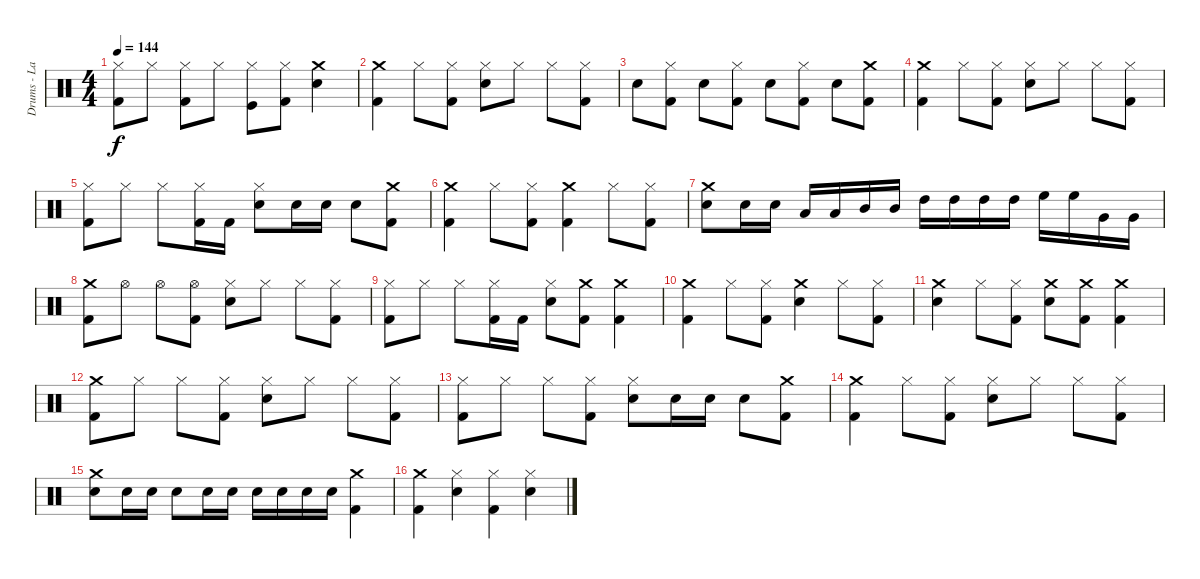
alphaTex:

\track ("Drums - Lars" "Drums - La") {instrument percussion}
\staff {score}
\articulation defaults
\ts (4 4)
\tempo 144
\clef neutral
\ks c
("Hi-Hat (closed)" "Kick (hit) 2").8{dy f} "Hi-Hat (closed)".8 ("Hi-Hat (closed)" "Kick (hit) 2").8 "Hi-Hat (closed)".8 ("Kick (hit)" "Hi-Hat (closed)").8 ("Kick (hit) 2" "Hi-Hat (closed)").8 ("Crash medium (hit)" "Snare (hit) 2").4 |
("Kick (hit) 2" "Crash medium (hit)").4 "Hi-Hat (closed)".8 ("Kick (hit) 2" "Hi-Hat (closed)").8 ("Snare (hit) 2" "Hi-Hat (closed)").8 "Hi-Hat (closed)".8 "Hi-Hat (closed)".8 ("Kick (hit) 2" "Hi-Hat (closed)").8 |
"Snare (hit) 2".8 ("Kick (hit) 2" "Hi-Hat (closed)").8 "Snare (hit) 2".8 ("Kick (hit) 2" "Hi-Hat (closed)").8 "Snare (hit) 2".8 ("Hi-Hat (closed)" "Kick (hit) 2").8 "Snare (hit) 2".8 ("Crash medium (hit)" "Kick (hit) 2").8 |
("Kick (hit) 2" "Crash medium (hit)").4 "Hi-Hat (closed)".8 ("Kick (hit) 2" "Hi-Hat (closed)").8 ("Snare (hit) 2" "Hi-Hat (closed)").8 "Hi-Hat (closed)".8 "Hi-Hat (closed)".8 ("Kick (hit) 2" "Hi-Hat (closed)").8 |
("Kick (hit) 2" "Hi-Hat (closed)").8 "Hi-Hat (closed)".8 "Hi-Hat (closed)".8 ("Kick (hit) 2" "Hi-Hat (closed)").16 "Kick (hit) 2".16 ("Snare (hit) 2" "Hi-Hat (closed)").8 "Snare (hit) 2".16 "Snare (hit) 2".16 "Snare (hit) 2".8 ("Crash medium (hit)" "Kick (hit) 2").8 |
("Kick (hit) 2" "Crash medium (hit)").4 "Hi-Hat (closed)".8 ("Kick (hit) 2" "Hi-Hat (closed)").8 ("Kick (hit) 2" "Crash medium (hit)").4 "Hi-Hat (closed)".8 ("Kick (hit) 2" "Hi-Hat (closed)").8 |
("Snare (hit) 2" "Crash medium (hit)").8 "Snare (hit) 2".16 "Snare (hit) 2".16 "Low Tom (hit)".16 "Low Tom (hit)".16 "Mid Tom (hit)".16 "Mid Tom (hit)".16 "High Tom (hit)".16 "High Tom (hit)".16 "High Tom (hit)".16 "High Tom (hit)".16 "High Floor Tom (hit)".16 "High Floor Tom (hit)".16 "Very Low Tom (hit)".16 "Very Low Tom (hit)".16 |
("Kick (hit) 2" "Crash medium (hit)").8 "Hi-Hat (open)".8 "Hi-Hat (open)".8 ("Kick (hit) 2" "Hi-Hat (open)").8 ("Snare (hit) 2" "Hi-Hat (closed)").8 "Hi-Hat (closed)".8 "Hi-Hat (closed)".8 ("Kick (hit) 2" "Hi-Hat (closed)").8 |
("Kick (hit) 2" "Hi-Hat (closed)").8 "Hi-Hat (closed)".8 "Hi-Hat (closed)".8 ("Kick (hit) 2" "Hi-Hat (closed)").16 "Kick (hit) 2".16 ("Snare (hit) 2" "Hi-Hat (closed)").8 ("Kick (hit) 2" "Crash medium (hit)").8 ("Kick (hit) 2" "Crash medium (hit)").4 |
("Kick (hit) 2" "Crash medium (hit)").4 "Hi-Hat (closed)".8 ("Kick (hit) 2" "Hi-Hat (closed)").8 ("Snare (hit) 2" "Crash medium (hit)").4 "Hi-Hat (closed)".8 ("Kick (hit) 2" "Hi-Hat (closed)").8 |
("Snare (hit) 2" "Crash medium (hit)").4 "Hi-Hat (closed)".8 ("Kick (hit) 2" "Hi-Hat (closed)").8 ("Snare (hit) 2" "Crash medium (hit)").8 ("Kick (hit) 2" "Crash medium (hit)").8 ("Crash medium (hit)" "Kick (hit) 2").4 |
("Crash medium (hit)" "Kick (hit) 2").8 "Hi-Hat (closed)".8 "Hi-Hat (closed)".8 ("Kick (hit) 2" "Hi-Hat (closed)").8 ("Snare (hit) 2" "Hi-Hat (closed)").8 "Hi-Hat (closed)".8 "Hi-Hat (closed)".8 ("Kick (hit) 2" "Hi-Hat (closed)").8 |
("Hi-Hat (closed)" "Kick (hit) 2").8 "Hi-Hat (closed)".8 "Hi-Hat (closed)".8 ("Kick (hit) 2" "Hi-Hat (closed)").8 ("Snare (hit) 2" "Hi-Hat (closed)").8 "Snare (hit) 2".16 "Snare (hit) 2".16 "Snare (hit) 2".8 ("Kick (hit) 2" "Crash medium (hit)").8 |
("Kick (hit) 2" "Crash medium (hit)").4 "Hi-Hat (closed)".8 ("Hi-Hat (closed)" "Kick (hit) 2").8 ("Hi-Hat (closed)" "Snare (hit) 2").8 "Hi-Hat (closed)".8 "Hi-Hat (closed)".8 ("Hi-Hat (closed)" "Kick (hit) 2").8 |
("Snare (hit) 2" "Crash medium (hit)").8 "Snare (hit) 2".16 "Snare (hit) 2".16 "Snare (hit) 2".8 "Snare (hit) 2".16 "Snare (hit) 2".16 "Snare (hit) 2".16 "Snare (hit) 2".16 "Snare (hit) 2".16 "Snare (hit) 2".16 ("Crash medium (hit)" "Kick (hit) 2").4 |
("Kick (hit) 2" "Crash medium (hit)").4 ("Hi-Hat (closed)" "Snare (hit) 2").4 ("Kick (hit) 2" "Hi-Hat (closed)").4 ("Snare (hit) 2" "Hi-Hat (closed)").4
